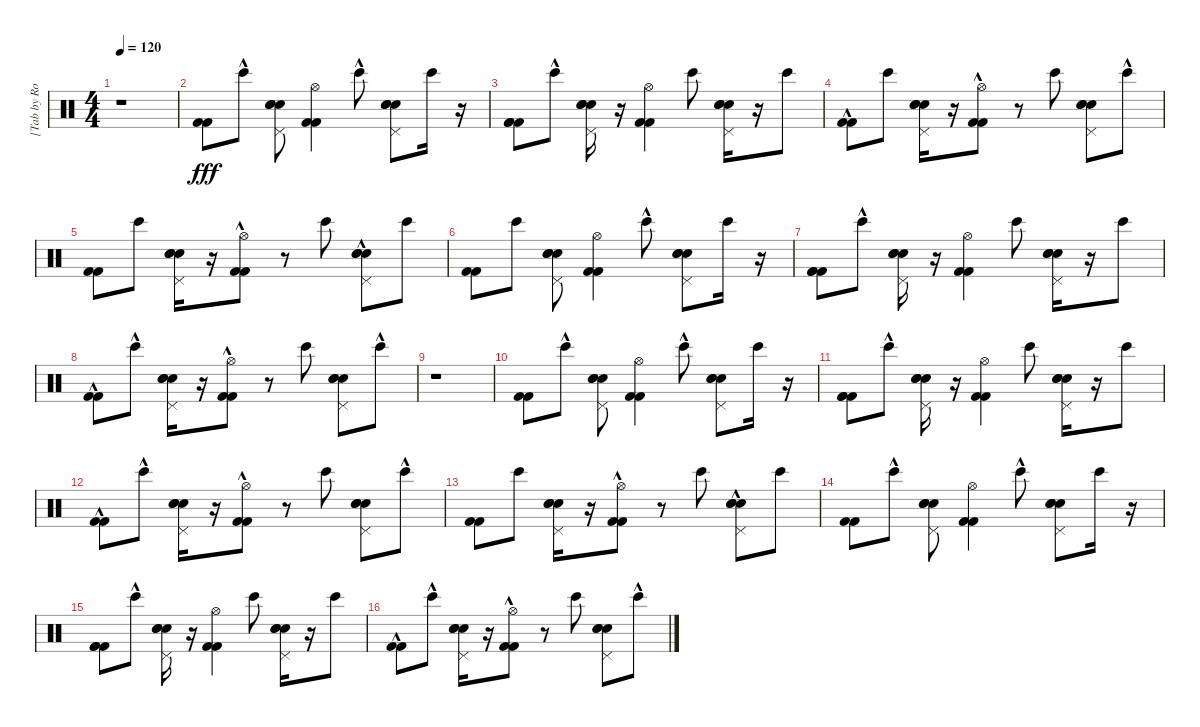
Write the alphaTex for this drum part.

\track ("[Tab by Rodrigo Takahashi]" "[Tab by Ro") {instrument percussion}
\staff {score}
\articulation defaults
\ts (4 4)
\tempo 120
\clef neutral
\ks c
r.1{dy fff} |
("Kick (hit) 2" "Kick (hit) 2").8 "Bongo High (hit)"{hac}.8 ("Hand Clap (hit)" "Pedal Hi-Hat (hit)" "Electric Snare (hit)" "Snare (hit) 2").8 ("Kick (hit) 2" "Kick (hit) 2" "Hi-Hat (open)").4 "Bongo High (hit)"{hac}.8 ("Pedal Hi-Hat (hit)" "Electric Snare (hit)" "Snare (hit) 2" "Hand Clap (hit)").8 "Bongo High (hit)".16 r.16 |
("Kick (hit) 2" "Kick (hit) 2" "Kick (hit) 2").8 "Bongo High (hit)"{hac}.8 ("Pedal Hi-Hat (hit)" "Electric Snare (hit)" "Snare (hit) 2" "Hand Clap (hit)").16 r.16 ("Kick (hit) 2" "Kick (hit) 2" "Hi-Hat (open)").4 "Bongo High (hit)".8 ("Pedal Hi-Hat (hit)" "Electric Snare (hit)" "Snare (hit) 2" "Hand Clap (hit)").16 r.16 "Bongo High (hit)".8 |
("Kick (hit) 2"{hac} "Kick (hit) 2"{hac}).8 "Bongo High (hit)".8 ("Pedal Hi-Hat (hit)" "Electric Snare (hit)" "Snare (hit) 2" "Hand Clap (hit)").16 r.16 ("Kick (hit) 2"{hac} "Kick (hit) 2"{hac} "Hi-Hat (open)").8 r.8 "Bongo High (hit)".8 ("Snare (hit) 2" "Pedal Hi-Hat (hit)" "Electric Snare (hit)" "Hand Clap (hit)").8 "Bongo High (hit)"{hac}.8 |
("Kick (hit) 2" "Kick (hit) 2").8 "Bongo High (hit)".8 ("Pedal Hi-Hat (hit)" "Electric Snare (hit)" "Snare (hit) 2" "Hand Clap (hit)").16 r.16 ("Kick (hit) 2"{hac} "Kick (hit) 2"{hac} "Hi-Hat (open)").8 r.8 "Bongo High (hit)".8 ("Snare (hit) 2" "Pedal Hi-Hat (hit)" "Electric Snare (hit)"{hac} "Hand Clap (hit)").8 "Bongo High (hit)".8 |
("Kick (hit) 2" "Kick (hit) 2").8 "Bongo High (hit)".8 ("Hand Clap (hit)" "Pedal Hi-Hat (hit)" "Electric Snare (hit)" "Snare (hit) 2").8 ("Kick (hit) 2" "Kick (hit) 2" "Hi-Hat (open)").4 "Bongo High (hit)"{hac}.8 ("Pedal Hi-Hat (hit)" "Electric Snare (hit)" "Snare (hit) 2" "Hand Clap (hit)").8 "Bongo High (hit)".16 r.16 |
("Kick (hit) 2" "Kick (hit) 2" "Kick (hit) 2").8 "Bongo High (hit)"{hac}.8 ("Pedal Hi-Hat (hit)" "Electric Snare (hit)" "Snare (hit) 2" "Hand Clap (hit)").16 r.16 ("Kick (hit) 2" "Kick (hit) 2" "Hi-Hat (open)").4 "Bongo High (hit)".8 ("Pedal Hi-Hat (hit)" "Electric Snare (hit)" "Snare (hit) 2" "Hand Clap (hit)").16 r.16 "Bongo High (hit)".8 |
("Kick (hit) 2"{hac} "Kick (hit) 2"{hac}).8 "Bongo High (hit)"{hac}.8 ("Pedal Hi-Hat (hit)" "Electric Snare (hit)" "Snare (hit) 2" "Hand Clap (hit)").16 r.16 ("Kick (hit) 2"{hac} "Kick (hit) 2"{hac} "Hi-Hat (open)").8 r.8 "Bongo High (hit)".8 ("Snare (hit) 2" "Pedal Hi-Hat (hit)" "Electric Snare (hit)" "Hand Clap (hit)").8 "Bongo High (hit)"{hac}.8 |
r.1 |
("Kick (hit) 2" "Kick (hit) 2").8 "Bongo High (hit)"{hac}.8 ("Hand Clap (hit)" "Pedal Hi-Hat (hit)" "Electric Snare (hit)" "Snare (hit) 2").8 ("Kick (hit) 2" "Kick (hit) 2" "Hi-Hat (open)").4 "Bongo High (hit)"{hac}.8 ("Pedal Hi-Hat (hit)" "Electric Snare (hit)" "Snare (hit) 2" "Hand Clap (hit)").8 "Bongo High (hit)".16 r.16 |
("Kick (hit) 2" "Kick (hit) 2" "Kick (hit) 2").8 "Bongo High (hit)"{hac}.8 ("Pedal Hi-Hat (hit)" "Electric Snare (hit)" "Snare (hit) 2" "Hand Clap (hit)").16 r.16 ("Kick (hit) 2" "Kick (hit) 2" "Hi-Hat (open)").4 "Bongo High (hit)".8 ("Pedal Hi-Hat (hit)" "Electric Snare (hit)" "Snare (hit) 2" "Hand Clap (hit)").16 r.16 "Bongo High (hit)".8 |
("Kick (hit) 2"{hac} "Kick (hit) 2"{hac}).8 "Bongo High (hit)"{hac}.8 ("Pedal Hi-Hat (hit)" "Electric Snare (hit)" "Snare (hit) 2" "Hand Clap (hit)").16 r.16 ("Kick (hit) 2"{hac} "Kick (hit) 2"{hac} "Hi-Hat (open)").8 r.8 "Bongo High (hit)".8 ("Snare (hit) 2" "Pedal Hi-Hat (hit)" "Electric Snare (hit)" "Hand Clap (hit)").8 "Bongo High (hit)"{hac}.8 |
("Kick (hit) 2" "Kick (hit) 2").8 "Bongo High (hit)".8 ("Pedal Hi-Hat (hit)" "Electric Snare (hit)" "Snare (hit) 2" "Hand Clap (hit)").16 r.16 ("Kick (hit) 2"{hac} "Kick (hit) 2"{hac} "Hi-Hat (open)").8 r.8 "Bongo High (hit)".8 ("Snare (hit) 2" "Pedal Hi-Hat (hit)" "Electric Snare (hit)"{hac} "Hand Clap (hit)").8 "Bongo High (hit)".8 |
("Kick (hit) 2" "Kick (hit) 2").8 "Bongo High (hit)"{hac}.8 ("Hand Clap (hit)" "Pedal Hi-Hat (hit)" "Electric Snare (hit)" "Snare (hit) 2").8 ("Kick (hit) 2" "Kick (hit) 2" "Hi-Hat (open)").4 "Bongo High (hit)"{hac}.8 ("Pedal Hi-Hat (hit)" "Electric Snare (hit)" "Snare (hit) 2" "Hand Clap (hit)").8 "Bongo High (hit)".16 r.16 |
("Kick (hit) 2" "Kick (hit) 2" "Kick (hit) 2").8 "Bongo High (hit)"{hac}.8 ("Pedal Hi-Hat (hit)" "Electric Snare (hit)" "Snare (hit) 2" "Hand Clap (hit)").16 r.16 ("Kick (hit) 2" "Kick (hit) 2" "Hi-Hat (open)").4 "Bongo High (hit)".8 ("Pedal Hi-Hat (hit)" "Electric Snare (hit)" "Snare (hit) 2" "Hand Clap (hit)").16 r.16 "Bongo High (hit)".8 |
("Kick (hit) 2"{hac} "Kick (hit) 2"{hac}).8 "Bongo High (hit)"{hac}.8 ("Pedal Hi-Hat (hit)" "Electric Snare (hit)" "Snare (hit) 2" "Hand Clap (hit)").16 r.16 ("Kick (hit) 2"{hac} "Kick (hit) 2"{hac} "Hi-Hat (open)").8 r.8 "Bongo High (hit)".8 ("Snare (hit) 2" "Pedal Hi-Hat (hit)" "Electric Snare (hit)" "Hand Clap (hit)").8 "Bongo High (hit)"{hac}.8
